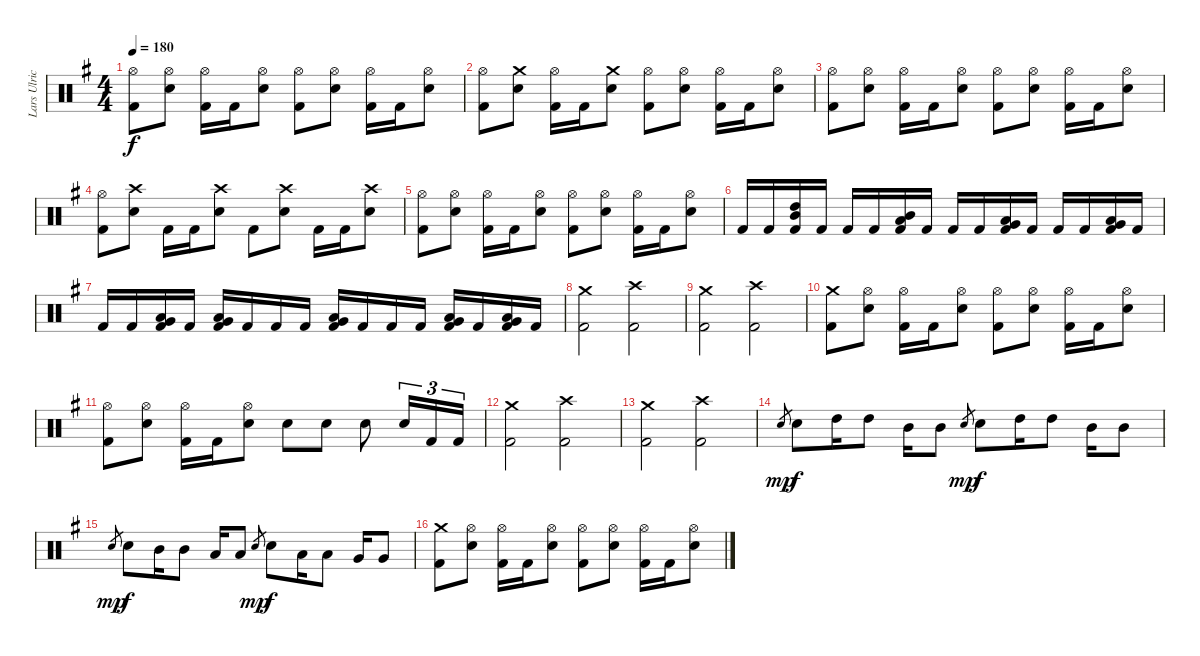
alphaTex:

\track ("Lars Ulrich" "Lars Ulric") {instrument percussion}
\staff {score}
\articulation defaults
\ts (4 4)
\tempo 180
\clef neutral
\ks eminor
("Hi-Hat (open)" "Kick (hit) 2").8{dy f} ("Hi-Hat (open)" "Snare (hit) 2").8 ("Hi-Hat (open)" "Kick (hit) 2").16 "Kick (hit) 2".16 ("Hi-Hat (open)" "Snare (hit) 2").8 ("Hi-Hat (open)" "Kick (hit) 2").8 ("Hi-Hat (open)" "Snare (hit) 2").8 ("Hi-Hat (open)" "Kick (hit) 2").16 "Kick (hit) 2".16 ("Hi-Hat (open)" "Snare (hit) 2").8 |
("Hi-Hat (open)" "Kick (hit) 2").8 ("Crash medium (hit)" "Snare (hit) 2").8 ("Hi-Hat (open)" "Kick (hit) 2").16 "Kick (hit) 2".16 ("Crash medium (hit)" "Snare (hit) 2").8 ("Hi-Hat (open)" "Kick (hit) 2").8 ("Hi-Hat (open)" "Snare (hit) 2").8 ("Hi-Hat (open)" "Kick (hit) 2").16 "Kick (hit) 2".16 ("Hi-Hat (open)" "Snare (hit) 2").8 |
("Hi-Hat (open)" "Kick (hit) 2").8 ("Hi-Hat (open)" "Snare (hit) 2").8 ("Hi-Hat (open)" "Kick (hit) 2").16 "Kick (hit) 2".16 ("Hi-Hat (open)" "Snare (hit) 2").8 ("Hi-Hat (open)" "Kick (hit) 2").8 ("Hi-Hat (open)" "Snare (hit) 2").8 ("Hi-Hat (open)" "Kick (hit) 2").16 "Kick (hit) 2".16 ("Hi-Hat (open)" "Snare (hit) 2").8 |
("Hi-Hat (open)" "Kick (hit) 2").8 ("Crash high (hit)" "Snare (hit) 2").8 "Kick (hit) 2".16 "Kick (hit) 2".16 ("Crash high (hit)" "Snare (hit) 2").8 "Kick (hit) 2".8 ("Crash high (hit)" "Snare (hit) 2").8 "Kick (hit) 2".16 "Kick (hit) 2".16 ("Crash high (hit)" "Snare (hit) 2").8 |
("Hi-Hat (open)" "Kick (hit) 2").8 ("Hi-Hat (open)" "Snare (hit) 2").8 ("Hi-Hat (open)" "Kick (hit) 2").16 "Kick (hit) 2".16 ("Hi-Hat (open)" "Snare (hit) 2").8 ("Hi-Hat (open)" "Kick (hit) 2").8 ("Hi-Hat (open)" "Snare (hit) 2").8 ("Hi-Hat (open)" "Kick (hit) 2").16 "Kick (hit) 2".16 ("Hi-Hat (open)" "Snare (hit) 2").8 |
"Kick (hit) 2".16 "Kick (hit) 2".16 ("High Tom (hit)" "Mid Tom (hit)" "Kick (hit) 2").16 "Kick (hit) 2".16 "Kick (hit) 2".16 "Kick (hit) 2".16 ("Mid Tom (hit)" "Low Tom (hit)" "Kick (hit) 2").16 "Kick (hit) 2".16 "Kick (hit) 2".16 "Kick (hit) 2".16 ("Low Tom (hit)" "Very Low Tom (hit)" "Kick (hit) 2").16 "Kick (hit) 2".16 "Kick (hit) 2".16 "Kick (hit) 2".16 ("Very Low Tom (hit)" "Low Floor Tom (hit)" "Kick (hit) 2").16 "Kick (hit) 2".16 |
"Kick (hit) 2".16 "Kick (hit) 2".16 ("Very Low Tom (hit)" "Low Floor Tom (hit)" "Kick (hit) 2").16 "Kick (hit) 2".16 ("Very Low Tom (hit)" "Low Floor Tom (hit)" "Kick (hit) 2").16 "Kick (hit) 2".16 "Kick (hit) 2".16 "Kick (hit) 2".16 ("Very Low Tom (hit)" "Low Floor Tom (hit)" "Kick (hit) 2").16 "Kick (hit) 2".16 "Kick (hit) 2".16 "Kick (hit) 2".16 ("Very Low Tom (hit)" "Low Floor Tom (hit)" "Kick (hit) 2").16 "Kick (hit) 2".16 ("Very Low Tom (hit)" "Low Floor Tom (hit)" "Kick (hit) 2").16 "Kick (hit) 2".16 |
("Crash medium (hit)" "Kick (hit) 2").2 ("Crash high (hit)" "Kick (hit) 2").2 |
("Crash medium (hit)" "Kick (hit) 2").2 ("Crash high (hit)" "Kick (hit) 2").2 |
("Crash medium (hit)" "Kick (hit) 2").8 ("Hi-Hat (open)" "Snare (hit) 2").8 ("Hi-Hat (open)" "Kick (hit) 2").16 "Kick (hit) 2".16 ("Hi-Hat (open)" "Snare (hit) 2").8 ("Hi-Hat (open)" "Kick (hit) 2").8 ("Hi-Hat (open)" "Snare (hit) 2").8 ("Hi-Hat (open)" "Kick (hit) 2").16 "Kick (hit) 2".16 ("Hi-Hat (open)" "Snare (hit) 2").8 |
("Hi-Hat (open)" "Kick (hit) 2").8 ("Hi-Hat (open)" "Snare (hit) 2").8 ("Hi-Hat (open)" "Kick (hit) 2").16 "Kick (hit) 2".16 ("Hi-Hat (open)" "Snare (hit) 2").8 "Snare (hit) 2".8 "Snare (hit) 2".8 "Snare (hit) 2".8 "Snare (hit) 2".16{tu (3 2)} "Kick (hit) 2".16{tu (3 2)} "Kick (hit) 2".16{tu (3 2)} |
("Crash medium (hit)" "Kick (hit) 2").2 ("Crash high (hit)" "Kick (hit) 2").2 |
("Crash medium (hit)" "Kick (hit) 2").2 ("Crash high (hit)" "Kick (hit) 2").2 |
"Snare (hit)".8{gr dy mp} "Snare (hit) 2".8{dy f} "High Tom (hit)".16 "High Tom (hit)".8 "Mid Tom (hit)".16 "Mid Tom (hit)".8 "Snare (hit)".8{gr dy mp} "Snare (hit) 2".8{dy f} "High Tom (hit)".16 "High Tom (hit)".8 "Mid Tom (hit)".16 "Mid Tom (hit)".8 |
"Snare (hit)".8{gr dy mp} "Snare (hit) 2".8{dy f} "Mid Tom (hit)".16 "Mid Tom (hit)".8 "Low Tom (hit)".16 "Low Tom (hit)".8 "Snare (hit)".8{gr dy mp} "Snare (hit) 2".8{dy f} "Low Tom (hit)".16 "Low Tom (hit)".8 "Very Low Tom (hit)".16 "Very Low Tom (hit)".8 |
("Crash medium (hit)" "Kick (hit) 2").8 ("Hi-Hat (open)" "Snare (hit) 2").8 ("Hi-Hat (open)" "Kick (hit) 2").16 "Kick (hit) 2".16 ("Hi-Hat (open)" "Snare (hit) 2").8 ("Hi-Hat (open)" "Kick (hit) 2").8 ("Hi-Hat (open)" "Snare (hit) 2").8 ("Hi-Hat (open)" "Kick (hit) 2").16 "Kick (hit) 2".16 ("Hi-Hat (open)" "Snare (hit) 2").8
